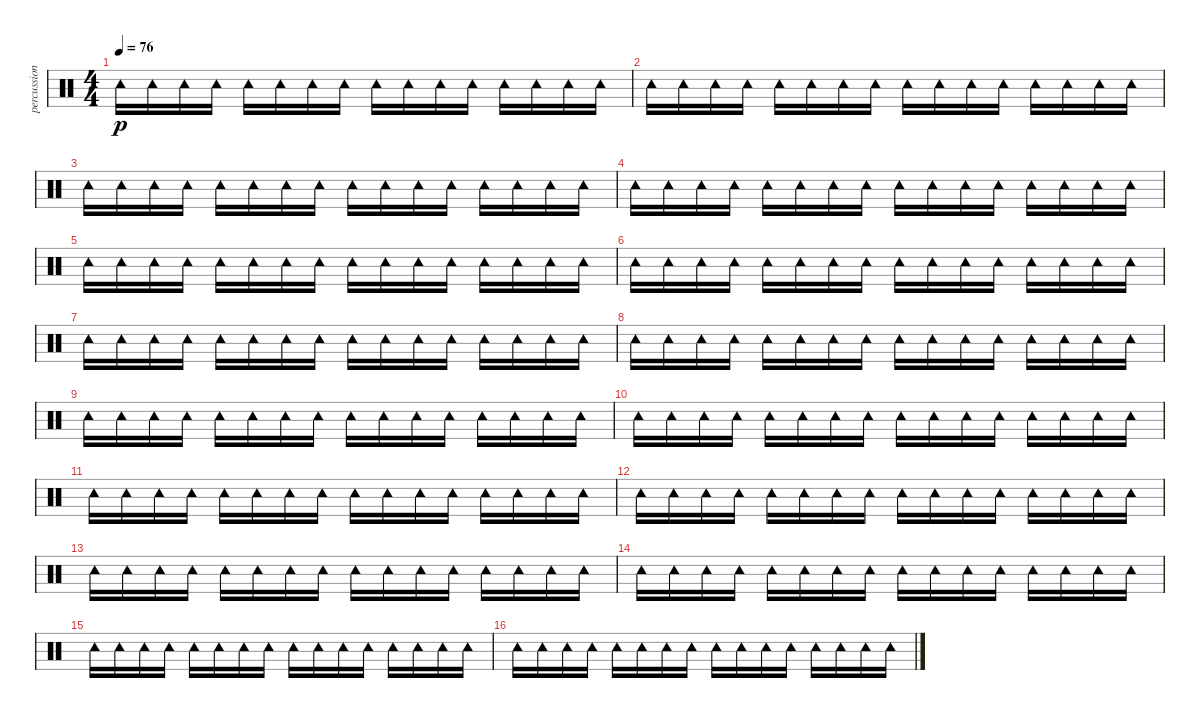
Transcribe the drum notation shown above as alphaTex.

\track ("percussion" "percussion") {instrument percussion}
\staff {score}
\articulation defaults
\ts (4 4)
\tempo 76
\clef neutral
\ks c "Tambourine (hit)".16{dy p} "Tambourine (hit)".16 "Tambourine (hit)".16 "Tambourine (hit)".16 "Tambourine (hit)".16 "Tambourine (hit)".16 "Tambourine (hit)".16 "Tambourine (hit)".16 "Tambourine (hit)".16 "Tambourine (hit)".16 "Tambourine (hit)".16 "Tambourine (hit)".16 "Tambourine (hit)".16 "Tambourine (hit)".16 "Tambourine (hit)".16 "Tambourine (hit)".16
|
"Tambourine (hit)".16 "Tambourine (hit)".16 "Tambourine (hit)".16 "Tambourine (hit)".16 "Tambourine (hit)".16 "Tambourine (hit)".16 "Tambourine (hit)".16 "Tambourine (hit)".16 "Tambourine (hit)".16 "Tambourine (hit)".16 "Tambourine (hit)".16 "Tambourine (hit)".16 "Tambourine (hit)".16 "Tambourine (hit)".16 "Tambourine (hit)".16 "Tambourine (hit)".16 |
"Tambourine (hit)".16 "Tambourine (hit)".16 "Tambourine (hit)".16 "Tambourine (hit)".16 "Tambourine (hit)".16 "Tambourine (hit)".16 "Tambourine (hit)".16 "Tambourine (hit)".16 "Tambourine (hit)".16 "Tambourine (hit)".16 "Tambourine (hit)".16 "Tambourine (hit)".16 "Tambourine (hit)".16 "Tambourine (hit)".16 "Tambourine (hit)".16 "Tambourine (hit)".16 |
"Tambourine (hit)".16 "Tambourine (hit)".16 "Tambourine (hit)".16 "Tambourine (hit)".16 "Tambourine (hit)".16 "Tambourine (hit)".16 "Tambourine (hit)".16 "Tambourine (hit)".16 "Tambourine (hit)".16 "Tambourine (hit)".16 "Tambourine (hit)".16 "Tambourine (hit)".16 "Tambourine (hit)".16 "Tambourine (hit)".16 "Tambourine (hit)".16 "Tambourine (hit)".16 |
"Tambourine (hit)".16 "Tambourine (hit)".16 "Tambourine (hit)".16 "Tambourine (hit)".16 "Tambourine (hit)".16 "Tambourine (hit)".16 "Tambourine (hit)".16 "Tambourine (hit)".16 "Tambourine (hit)".16 "Tambourine (hit)".16 "Tambourine (hit)".16 "Tambourine (hit)".16 "Tambourine (hit)".16 "Tambourine (hit)".16 "Tambourine (hit)".16 "Tambourine (hit)".16 |
"Tambourine (hit)".16 "Tambourine (hit)".16 "Tambourine (hit)".16 "Tambourine (hit)".16 "Tambourine (hit)".16 "Tambourine (hit)".16 "Tambourine (hit)".16 "Tambourine (hit)".16 "Tambourine (hit)".16 "Tambourine (hit)".16 "Tambourine (hit)".16 "Tambourine (hit)".16 "Tambourine (hit)".16 "Tambourine (hit)".16 "Tambourine (hit)".16 "Tambourine (hit)".16 |
"Tambourine (hit)".16 "Tambourine (hit)".16 "Tambourine (hit)".16 "Tambourine (hit)".16 "Tambourine (hit)".16 "Tambourine (hit)".16 "Tambourine (hit)".16 "Tambourine (hit)".16 "Tambourine (hit)".16 "Tambourine (hit)".16 "Tambourine (hit)".16 "Tambourine (hit)".16 "Tambourine (hit)".16 "Tambourine (hit)".16 "Tambourine (hit)".16 "Tambourine (hit)".16 |
"Tambourine (hit)".16 "Tambourine (hit)".16 "Tambourine (hit)".16 "Tambourine (hit)".16 "Tambourine (hit)".16 "Tambourine (hit)".16 "Tambourine (hit)".16 "Tambourine (hit)".16 "Tambourine (hit)".16 "Tambourine (hit)".16 "Tambourine (hit)".16 "Tambourine (hit)".16 "Tambourine (hit)".16 "Tambourine (hit)".16 "Tambourine (hit)".16 "Tambourine (hit)".16 |
"Tambourine (hit)".16 "Tambourine (hit)".16 "Tambourine (hit)".16 "Tambourine (hit)".16 "Tambourine (hit)".16 "Tambourine (hit)".16 "Tambourine (hit)".16 "Tambourine (hit)".16 "Tambourine (hit)".16 "Tambourine (hit)".16 "Tambourine (hit)".16 "Tambourine (hit)".16 "Tambourine (hit)".16 "Tambourine (hit)".16 "Tambourine (hit)".16 "Tambourine (hit)".16 |
"Tambourine (hit)".16 "Tambourine (hit)".16 "Tambourine (hit)".16 "Tambourine (hit)".16 "Tambourine (hit)".16 "Tambourine (hit)".16 "Tambourine (hit)".16 "Tambourine (hit)".16 "Tambourine (hit)".16 "Tambourine (hit)".16 "Tambourine (hit)".16 "Tambourine (hit)".16 "Tambourine (hit)".16 "Tambourine (hit)".16 "Tambourine (hit)".16 "Tambourine (hit)".16 |
"Tambourine (hit)".16 "Tambourine (hit)".16 "Tambourine (hit)".16 "Tambourine (hit)".16 "Tambourine (hit)".16 "Tambourine (hit)".16 "Tambourine (hit)".16 "Tambourine (hit)".16 "Tambourine (hit)".16 "Tambourine (hit)".16 "Tambourine (hit)".16 "Tambourine (hit)".16 "Tambourine (hit)".16 "Tambourine (hit)".16 "Tambourine (hit)".16 "Tambourine (hit)".16 |
"Tambourine (hit)".16 "Tambourine (hit)".16 "Tambourine (hit)".16 "Tambourine (hit)".16 "Tambourine (hit)".16 "Tambourine (hit)".16 "Tambourine (hit)".16 "Tambourine (hit)".16 "Tambourine (hit)".16 "Tambourine (hit)".16 "Tambourine (hit)".16 "Tambourine (hit)".16 "Tambourine (hit)".16 "Tambourine (hit)".16 "Tambourine (hit)".16 "Tambourine (hit)".16 |
"Tambourine (hit)".16 "Tambourine (hit)".16 "Tambourine (hit)".16 "Tambourine (hit)".16 "Tambourine (hit)".16 "Tambourine (hit)".16 "Tambourine (hit)".16 "Tambourine (hit)".16 "Tambourine (hit)".16 "Tambourine (hit)".16 "Tambourine (hit)".16 "Tambourine (hit)".16 "Tambourine (hit)".16 "Tambourine (hit)".16 "Tambourine (hit)".16 "Tambourine (hit)".16 |
"Tambourine (hit)".16 "Tambourine (hit)".16 "Tambourine (hit)".16 "Tambourine (hit)".16 "Tambourine (hit)".16 "Tambourine (hit)".16 "Tambourine (hit)".16 "Tambourine (hit)".16 "Tambourine (hit)".16 "Tambourine (hit)".16 "Tambourine (hit)".16 "Tambourine (hit)".16 "Tambourine (hit)".16 "Tambourine (hit)".16 "Tambourine (hit)".16 "Tambourine (hit)".16 |
"Tambourine (hit)".16 "Tambourine (hit)".16 "Tambourine (hit)".16 "Tambourine (hit)".16 "Tambourine (hit)".16 "Tambourine (hit)".16 "Tambourine (hit)".16 "Tambourine (hit)".16 "Tambourine (hit)".16 "Tambourine (hit)".16 "Tambourine (hit)".16 "Tambourine (hit)".16 "Tambourine (hit)".16 "Tambourine (hit)".16 "Tambourine (hit)".16 "Tambourine (hit)".16 |
"Tambourine (hit)".16 "Tambourine (hit)".16 "Tambourine (hit)".16 "Tambourine (hit)".16 "Tambourine (hit)".16 "Tambourine (hit)".16 "Tambourine (hit)".16 "Tambourine (hit)".16 "Tambourine (hit)".16 "Tambourine (hit)".16 "Tambourine (hit)".16 "Tambourine (hit)".16 "Tambourine (hit)".16 "Tambourine (hit)".16 "Tambourine (hit)".16 "Tambourine (hit)".16
